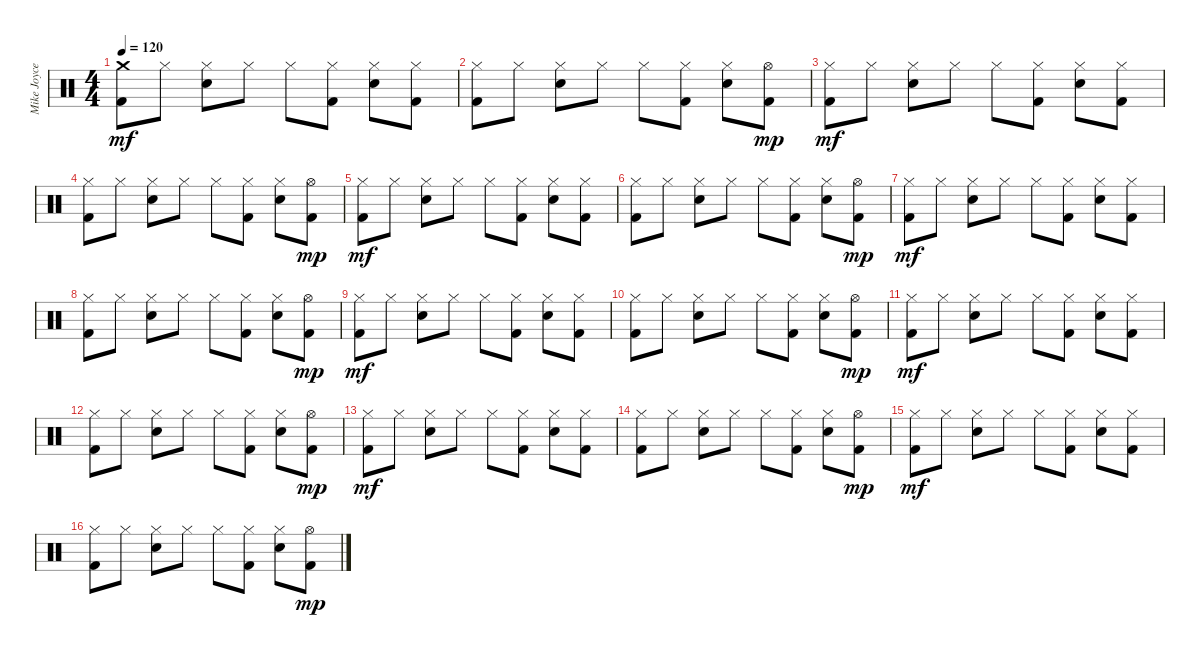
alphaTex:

\track ("Mike Joyce" "Mike Joyce") {instrument percussion}
\staff {score}
\articulation defaults
\ts (4 4)
\tempo 120
\clef neutral
\ks c
("Crash medium (hit)" "Kick (hit) 2").8{dy mf} "Hi-Hat (closed)".8 ("Hi-Hat (closed)" "Electric Snare (hit)").8 "Hi-Hat (closed)".8 "Hi-Hat (closed)".8 ("Hi-Hat (closed)" "Kick (hit) 2").8 ("Hi-Hat (closed)" "Electric Snare (hit)").8 ("Hi-Hat (closed)" "Kick (hit) 2").8 |
("Hi-Hat (closed)" "Kick (hit) 2").8 "Hi-Hat (closed)".8 ("Hi-Hat (closed)" "Electric Snare (hit)").8 "Hi-Hat (closed)".8 "Hi-Hat (closed)".8 ("Hi-Hat (closed)" "Kick (hit) 2").8 ("Hi-Hat (closed)" "Electric Snare (hit)").8 ("Hi-Hat (open)" "Kick (hit) 2").8{dy mp} |
("Hi-Hat (closed)" "Kick (hit) 2").8{dy mf} "Hi-Hat (closed)".8 ("Hi-Hat (closed)" "Electric Snare (hit)").8 "Hi-Hat (closed)".8 "Hi-Hat (closed)".8 ("Hi-Hat (closed)" "Kick (hit) 2").8 ("Hi-Hat (closed)" "Electric Snare (hit)").8 ("Hi-Hat (closed)" "Kick (hit) 2").8 |
("Hi-Hat (closed)" "Kick (hit) 2").8 "Hi-Hat (closed)".8 ("Hi-Hat (closed)" "Electric Snare (hit)").8 "Hi-Hat (closed)".8 "Hi-Hat (closed)".8 ("Hi-Hat (closed)" "Kick (hit) 2").8 ("Hi-Hat (closed)" "Electric Snare (hit)").8 ("Hi-Hat (open)" "Kick (hit) 2").8{dy mp} |
("Hi-Hat (closed)" "Kick (hit) 2").8{dy mf} "Hi-Hat (closed)".8 ("Hi-Hat (closed)" "Electric Snare (hit)").8 "Hi-Hat (closed)".8 "Hi-Hat (closed)".8 ("Hi-Hat (closed)" "Kick (hit) 2").8 ("Hi-Hat (closed)" "Electric Snare (hit)").8 ("Hi-Hat (closed)" "Kick (hit) 2").8 |
("Hi-Hat (closed)" "Kick (hit) 2").8 "Hi-Hat (closed)".8 ("Hi-Hat (closed)" "Electric Snare (hit)").8 "Hi-Hat (closed)".8 "Hi-Hat (closed)".8 ("Hi-Hat (closed)" "Kick (hit) 2").8 ("Hi-Hat (closed)" "Electric Snare (hit)").8 ("Hi-Hat (open)" "Kick (hit) 2").8{dy mp} |
("Hi-Hat (closed)" "Kick (hit) 2").8{dy mf} "Hi-Hat (closed)".8 ("Hi-Hat (closed)" "Electric Snare (hit)").8 "Hi-Hat (closed)".8 "Hi-Hat (closed)".8 ("Hi-Hat (closed)" "Kick (hit) 2").8 ("Hi-Hat (closed)" "Electric Snare (hit)").8 ("Hi-Hat (closed)" "Kick (hit) 2").8 |
("Hi-Hat (closed)" "Kick (hit) 2").8 "Hi-Hat (closed)".8 ("Hi-Hat (closed)" "Electric Snare (hit)").8 "Hi-Hat (closed)".8 "Hi-Hat (closed)".8 ("Hi-Hat (closed)" "Kick (hit) 2").8 ("Hi-Hat (closed)" "Electric Snare (hit)").8 ("Hi-Hat (open)" "Kick (hit) 2").8{dy mp} |
("Hi-Hat (closed)" "Kick (hit) 2").8{dy mf} "Hi-Hat (closed)".8 ("Hi-Hat (closed)" "Electric Snare (hit)").8 "Hi-Hat (closed)".8 "Hi-Hat (closed)".8 ("Hi-Hat (closed)" "Kick (hit) 2").8 ("Hi-Hat (closed)" "Electric Snare (hit)").8 ("Hi-Hat (closed)" "Kick (hit) 2").8 |
("Hi-Hat (closed)" "Kick (hit) 2").8 "Hi-Hat (closed)".8 ("Hi-Hat (closed)" "Electric Snare (hit)").8 "Hi-Hat (closed)".8 "Hi-Hat (closed)".8 ("Hi-Hat (closed)" "Kick (hit) 2").8 ("Hi-Hat (closed)" "Electric Snare (hit)").8 ("Hi-Hat (open)" "Kick (hit) 2").8{dy mp} |
("Hi-Hat (closed)" "Kick (hit) 2").8{dy mf} "Hi-Hat (closed)".8 ("Hi-Hat (closed)" "Electric Snare (hit)").8 "Hi-Hat (closed)".8 "Hi-Hat (closed)".8 ("Hi-Hat (closed)" "Kick (hit) 2").8 ("Hi-Hat (closed)" "Electric Snare (hit)").8 ("Hi-Hat (closed)" "Kick (hit) 2").8 |
("Hi-Hat (closed)" "Kick (hit) 2").8 "Hi-Hat (closed)".8 ("Hi-Hat (closed)" "Electric Snare (hit)").8 "Hi-Hat (closed)".8 "Hi-Hat (closed)".8 ("Hi-Hat (closed)" "Kick (hit) 2").8 ("Hi-Hat (closed)" "Electric Snare (hit)").8 ("Hi-Hat (open)" "Kick (hit) 2").8{dy mp} |
("Hi-Hat (closed)" "Kick (hit) 2").8{dy mf} "Hi-Hat (closed)".8 ("Hi-Hat (closed)" "Electric Snare (hit)").8 "Hi-Hat (closed)".8 "Hi-Hat (closed)".8 ("Hi-Hat (closed)" "Kick (hit) 2").8 ("Hi-Hat (closed)" "Electric Snare (hit)").8 ("Hi-Hat (closed)" "Kick (hit) 2").8 |
("Hi-Hat (closed)" "Kick (hit) 2").8 "Hi-Hat (closed)".8 ("Hi-Hat (closed)" "Electric Snare (hit)").8 "Hi-Hat (closed)".8 "Hi-Hat (closed)".8 ("Hi-Hat (closed)" "Kick (hit) 2").8 ("Hi-Hat (closed)" "Electric Snare (hit)").8 ("Hi-Hat (open)" "Kick (hit) 2").8{dy mp} |
("Hi-Hat (closed)" "Kick (hit) 2").8{dy mf} "Hi-Hat (closed)".8 ("Hi-Hat (closed)" "Electric Snare (hit)").8 "Hi-Hat (closed)".8 "Hi-Hat (closed)".8 ("Hi-Hat (closed)" "Kick (hit) 2").8 ("Hi-Hat (closed)" "Electric Snare (hit)").8 ("Hi-Hat (closed)" "Kick (hit) 2").8 |
("Hi-Hat (closed)" "Kick (hit) 2").8 "Hi-Hat (closed)".8 ("Hi-Hat (closed)" "Electric Snare (hit)").8 "Hi-Hat (closed)".8 "Hi-Hat (closed)".8 ("Hi-Hat (closed)" "Kick (hit) 2").8 ("Hi-Hat (closed)" "Electric Snare (hit)").8 ("Hi-Hat (open)" "Kick (hit) 2").8{dy mp}
